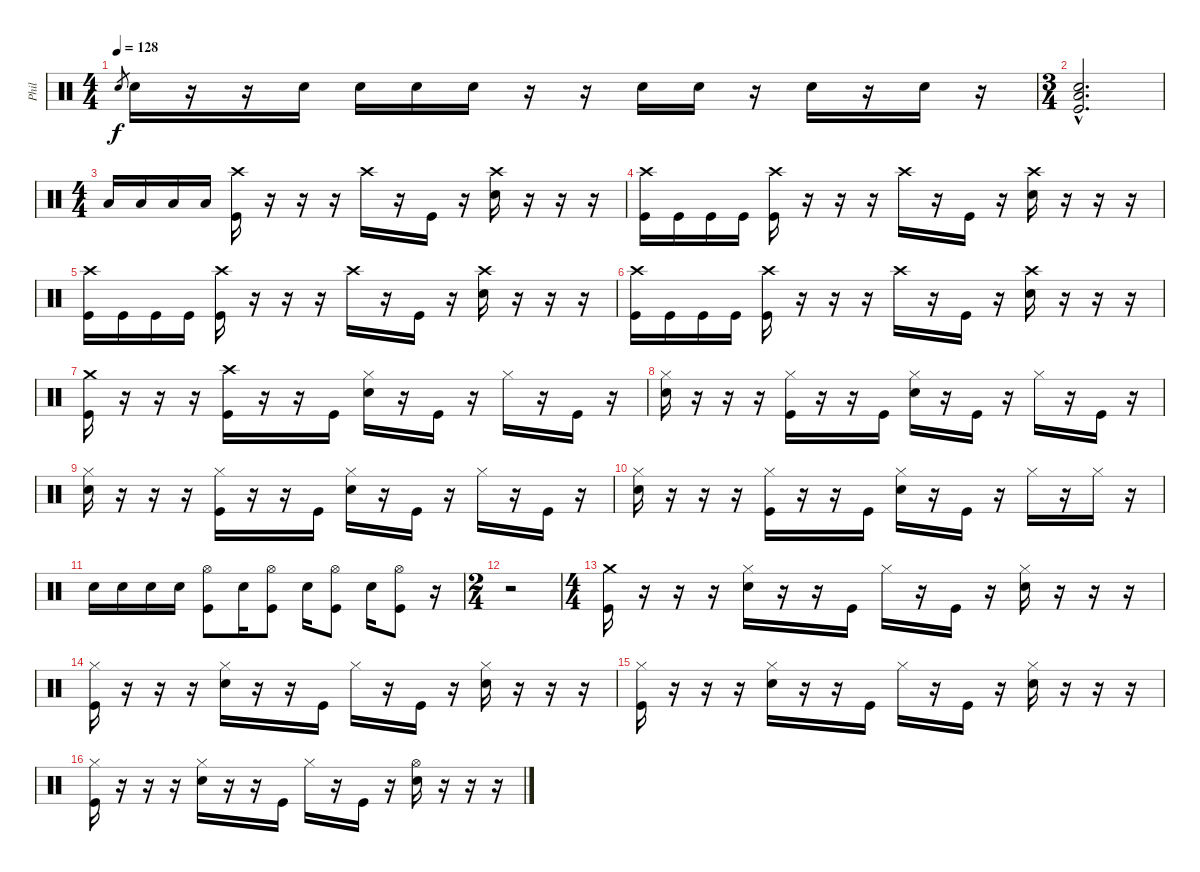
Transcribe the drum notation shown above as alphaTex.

\track ("Phil" "Phil") {instrument percussion}
\staff {score}
\articulation defaults
\ts (4 4)
\tempo 128
\clef neutral
\ks c "Electric Snare (hit)".8{gr dy f} "Electric Snare (hit)".16
r.16 r.16 "Electric Snare (hit)".16 "Electric Snare (hit)".16 "Electric Snare (hit)".16 "Electric Snare (hit)".16 r.16 r.16 "Electric Snare (hit)".16 "Electric Snare (hit)".16 r.16 "Electric Snare (hit)".16 r.16 "Electric Snare (hit)".16 r.16 |
\ts (3 4)
("Electric Snare (hit)"{hac} "Low Floor Tom (hit)"{hac} "Kick (hit)"{hac}).2{d} |
\ts (4 4)
"Low Tom (hit)".16 "Low Tom (hit)".16 "Low Floor Tom (hit)".16 "Low Floor Tom (hit)".16 ("Crash high (hit)" "Kick (hit)").16 r.16 r.16 r.16 "Crash high (hit)".16 r.16 "Kick (hit)".16 r.16 ("Crash high (hit)" "Electric Snare (hit)").16 r.16 r.16 r.16 |
("Crash high (hit)" "Kick (hit)").16 "Kick (hit)".16 "Kick (hit)".16 "Kick (hit)".16 ("Crash high (hit)" "Kick (hit)").16 r.16 r.16 r.16 "Crash high (hit)".16 r.16 "Kick (hit)".16 r.16 ("Crash high (hit)" "Electric Snare (hit)").16 r.16 r.16 r.16 |
("Crash high (hit)" "Kick (hit)").16 "Kick (hit)".16 "Kick (hit)".16 "Kick (hit)".16 ("Crash high (hit)" "Kick (hit)").16 r.16 r.16 r.16 "Crash high (hit)".16 r.16 "Kick (hit)".16 r.16 ("Crash high (hit)" "Electric Snare (hit)").16 r.16 r.16 r.16 |
("Crash high (hit)" "Kick (hit)").16 "Kick (hit)".16 "Kick (hit)".16 "Kick (hit)".16 ("Crash high (hit)" "Kick (hit)").16 r.16 r.16 r.16 "Crash high (hit)".16 r.16 "Kick (hit)".16 r.16 ("Crash high (hit)" "Electric Snare (hit)").16 r.16 r.16 r.16 |
("Crash medium (hit)" "Kick (hit)").16 r.16 r.16 r.16 ("Crash high (hit)" "Kick (hit)").16 r.16 r.16 "Kick (hit)".16 ("Hi-Hat (closed)" "Electric Snare (hit)").16 r.16 "Kick (hit)".16 r.16 "Hi-Hat (closed)".16 r.16 "Kick (hit)".16 r.16 |
("Hi-Hat (closed)" "Electric Snare (hit)").16 r.16 r.16 r.16 ("Hi-Hat (closed)" "Kick (hit)").16 r.16 r.16 "Kick (hit)".16 ("Hi-Hat (closed)" "Electric Snare (hit)").16 r.16 "Kick (hit)".16 r.16 "Hi-Hat (closed)".16 r.16 "Kick (hit)".16 r.16 |
("Hi-Hat (closed)" "Electric Snare (hit)").16 r.16 r.16 r.16 ("Hi-Hat (closed)" "Kick (hit)").16 r.16 r.16 "Kick (hit)".16 ("Hi-Hat (closed)" "Electric Snare (hit)").16 r.16 "Kick (hit)".16 r.16 "Hi-Hat (closed)".16 r.16 "Kick (hit)".16 r.16 |
("Hi-Hat (closed)" "Electric Snare (hit)").16 r.16 r.16 r.16 ("Hi-Hat (closed)" "Kick (hit)").16 r.16 r.16 "Kick (hit)".16 ("Hi-Hat (closed)" "Electric Snare (hit)").16 r.16 "Kick (hit)".16 r.16 "Hi-Hat (closed)".16 r.16 "Hi-Hat (closed)".16 r.16 |
"Electric Snare (hit)".16 "Electric Snare (hit)".16 "Electric Snare (hit)".16 "Electric Snare (hit)".16 ("Hi-Hat (open)" "Kick (hit)").8 "Electric Snare (hit)".16 ("Hi-Hat (open)" "Kick (hit)").8 "Electric Snare (hit)".16 ("Hi-Hat (open)" "Kick (hit)").8 "Electric Snare (hit)".16 ("Hi-Hat (open)" "Kick (hit)").8 r.16 |
\ts (2 4)
r.2 |
\ts (4 4)
("Crash medium (hit)" "Kick (hit)").16 r.16 r.16 r.16 ("Hi-Hat (closed)" "Electric Snare (hit)").16 r.16 r.16 "Kick (hit)".16 "Hi-Hat (closed)".16 r.16 "Kick (hit)".16 r.16 ("Hi-Hat (closed)" "Electric Snare (hit)").16 r.16 r.16 r.16 |
("Hi-Hat (closed)" "Kick (hit)").16 r.16 r.16 r.16 ("Hi-Hat (closed)" "Electric Snare (hit)").16 r.16 r.16 "Kick (hit)".16 "Hi-Hat (closed)".16 r.16 "Kick (hit)".16 r.16 ("Hi-Hat (closed)" "Electric Snare (hit)").16 r.16 r.16 r.16 |
("Hi-Hat (closed)" "Kick (hit)").16 r.16 r.16 r.16 ("Hi-Hat (closed)" "Electric Snare (hit)").16 r.16 r.16 "Kick (hit)".16 "Hi-Hat (closed)".16 r.16 "Kick (hit)".16 r.16 ("Hi-Hat (closed)" "Electric Snare (hit)").16 r.16 r.16 r.16 |
("Hi-Hat (closed)" "Kick (hit)").16 r.16 r.16 r.16 ("Hi-Hat (closed)" "Electric Snare (hit)").16 r.16 r.16 "Kick (hit)".16 "Hi-Hat (closed)".16 r.16 "Kick (hit)".16 r.16 ("Hi-Hat (open)" "Electric Snare (hit)").16 r.16 r.16 r.16
